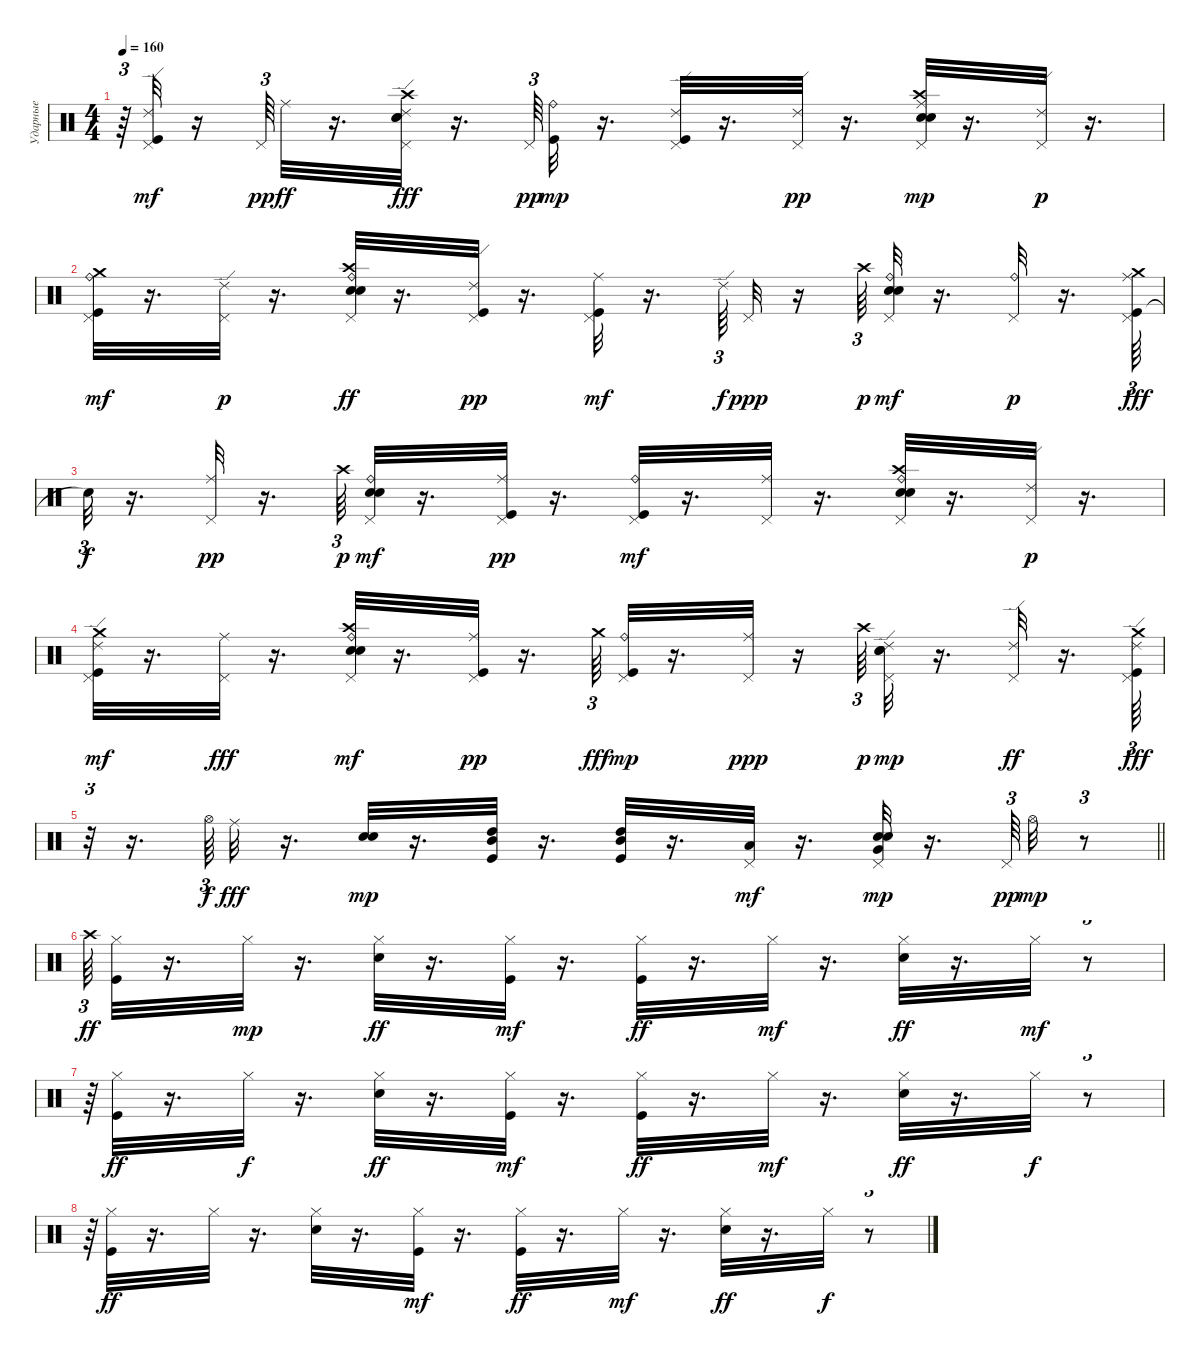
\track ("Ударные" "Ударные") {instrument percussion}
\staff {score}
\articulation defaults
\ts (4 4)
\tempo 160
\clef neutral
\ks c
r.64{tu (3 2) dy ff} ("Kick (hit)" "Ride (edge) 2" "Pedal Hi-Hat (hit)").32{dy mf} r.16 "Pedal Hi-Hat (hit)".64{tu (3 2) dy pp} "Ride (middle)".32{dy ff} r.16{d} ("Pedal Hi-Hat (hit)" "Electric Snare (hit)" "Crash high (hit)" "Snare (hit) 2" "Ride (edge) 2").32{dy fff} r.16{d} "Pedal Hi-Hat (hit)".64{tu (3 2) dy pp} ("Kick (hit)" "Ride (bell)").32{dy mp} r.16{d} ("Kick (hit)" "Ride (edge) 2" "Pedal Hi-Hat (hit)").32 r.16{d} ("Ride (edge) 2" "Pedal Hi-Hat (hit)").32{dy pp} r.16{d} ("Electric Snare (hit)" "Snare (hit) 2" "Ride (middle)" "Pedal Hi-Hat (hit)" "Crash high (hit)").32{dy mp} r.16{d} ("Ride (edge) 2" "Pedal Hi-Hat (hit)").32{dy p} r.16{d} |
("Crash medium (hit)" "Kick (hit)" "Ride (bell)" "Pedal Hi-Hat (hit)").32{dy mf} r.16{d} ("Ride (edge) 2" "Pedal Hi-Hat (hit)").32{dy p} r.16{d} ("Electric Snare (hit)" "Crash high (hit)" "Snare (hit) 2" "Ride (bell)" "Pedal Hi-Hat (hit)").32{dy ff} r.16{d} ("Kick (hit)" "Ride (edge) 2" "Pedal Hi-Hat (hit)").32{dy pp} r.16{d} ("Kick (hit)" "Ride (middle)" "Pedal Hi-Hat (hit)").32{dy mf} r.16{d} "Ride (edge) 2".64{tu (3 2) dy f} "Pedal Hi-Hat (hit)".32{dy ppp} r.16 "Crash high (hit)".64{tu (3 2) dy p} ("Electric Snare (hit)" "Snare (hit) 2" "Ride (bell)" "Pedal Hi-Hat (hit)").32{dy mf} r.16{d} ("Ride (bell)" "Pedal Hi-Hat (hit)").32{dy p} r.16{d} ("Kick (hit)" "Ride (middle)" "Pedal Hi-Hat (hit)" "Crash medium (hit)").64{tu (3 2) dy fff} |
"Snare (hit)"{t}.32{tu (3 2) dy f} r.16{d} ("Ride (middle)" "Pedal Hi-Hat (hit)").32{dy pp} r.16{d} "Crash high (hit)".64{tu (3 2) dy p} ("Electric Snare (hit)" "Snare (hit) 2" "Ride (bell)" "Pedal Hi-Hat (hit)").32{dy mf} r.16{d} ("Kick (hit)" "Ride (middle)" "Pedal Hi-Hat (hit)").32{dy pp} r.16{d} ("Kick (hit)" "Ride (bell)" "Pedal Hi-Hat (hit)").32{dy mf} r.16{d} ("Pedal Hi-Hat (hit)" "Ride (middle)").32 r.16{d} ("Electric Snare (hit)" "Crash high (hit)" "Snare (hit) 2" "Ride (bell)" "Pedal Hi-Hat (hit)").32 r.16{d} ("Ride (edge) 2" "Pedal Hi-Hat (hit)").32{dy p} r.16{d} |
("Crash medium (hit)" "Kick (hit)" "Ride (edge) 2" "Pedal Hi-Hat (hit)").32{dy mf} r.16{d} ("Pedal Hi-Hat (hit)" "Ride (middle)").32{dy fff} r.16{d} ("Electric Snare (hit)" "Crash high (hit)" "Snare (hit) 2" "Ride (bell)" "Pedal Hi-Hat (hit)").32{dy mf} r.16{d} ("Kick (hit)" "Ride (middle)" "Pedal Hi-Hat (hit)").32{dy pp} r.16{d} "Crash medium (hit)".64{tu (3 2) dy fff} ("Kick (hit)" "Ride (bell)" "Pedal Hi-Hat (hit)").32{dy mp} r.16{d} ("Ride (middle)" "Pedal Hi-Hat (hit)").32{dy ppp} r.16 "Crash high (hit)".64{tu (3 2) dy p} ("Electric Snare (hit)" "Snare (hit) 2" "Ride (edge) 2" "Pedal Hi-Hat (hit)").32{dy mp} r.16{d} ("Pedal Hi-Hat (hit)" "Ride (edge) 2").32{dy ff} r.16{d} ("Kick (hit)" "Crash medium (hit)" "Ride (edge) 2" "Pedal Hi-Hat (hit)").64{tu (3 2) dy fff} |
\barLineRight lightlight
r.32{tu (3 2)} r.16{d} "Hi-Hat (open)".64{tu (3 2) dy f} "Ride (middle)".32{dy fff} r.16{d} ("Electric Snare (hit)" "Snare (hit) 2").32{dy mp} r.16{d} ("Kick (hit)" "High Tom (hit)" "Mid Tom (hit)").32 r.16{d} ("Kick (hit)" "High Tom (hit)" "Mid Tom (hit)").32 r.16{d} ("Pedal Hi-Hat (hit)" "Low Tom (hit)").32{dy mf} r.16{d} ("Pedal Hi-Hat (hit)" "Electric Snare (hit)" "Very Low Tom (hit)" "Snare (hit) 2").32{dy mp} r.16{d} "Pedal Hi-Hat (hit)".64{tu (3 2) dy pp} "Hi-Hat (open)".32{dy mp} r.8{tu (3 2)} |
"Crash high (hit)".64{tu (3 2) dy ff} ("Kick (hit)" "Hi-Hat (closed)").32 r.16{d} "Hi-Hat (closed)".32{dy mp} r.16{d} ("Hi-Hat (closed)" "Electric Snare (hit)").32{dy ff} r.16{d} ("Kick (hit)" "Hi-Hat (closed)").32{dy mf} r.16{d} ("Kick (hit)" "Hi-Hat (closed)").32{dy ff} r.16{d} "Hi-Hat (closed)".32{dy mf} r.16{d} ("Hi-Hat (closed)" "Electric Snare (hit)").32{dy ff} r.16{d} "Hi-Hat (closed)".32{dy mf} r.8{tu (3 2)} |
r.64{tu (3 2)} ("Kick (hit)" "Hi-Hat (closed)").32{dy ff} r.16{d} "Hi-Hat (closed)".32{dy f} r.16{d} ("Hi-Hat (closed)" "Electric Snare (hit)").32{dy ff} r.16{d} ("Kick (hit)" "Hi-Hat (closed)").32{dy mf} r.16{d} ("Kick (hit)" "Hi-Hat (closed)").32{dy ff} r.16{d} "Hi-Hat (closed)".32{dy mf} r.16{d} ("Hi-Hat (closed)" "Electric Snare (hit)").32{dy ff} r.16{d} "Hi-Hat (closed)".32{dy f} r.8{tu (3 2)} |
r.64{tu (3 2)} ("Kick (hit)" "Hi-Hat (closed)").32{dy ff} r.16{d} "Hi-Hat (closed)".32 r.16{d} ("Hi-Hat (closed)" "Electric Snare (hit)").32 r.16{d} ("Kick (hit)" "Hi-Hat (closed)").32{dy mf} r.16{d} ("Kick (hit)" "Hi-Hat (closed)").32{dy ff} r.16{d} "Hi-Hat (closed)".32{dy mf} r.16{d} ("Hi-Hat (closed)" "Electric Snare (hit)").32{dy ff} r.16{d} "Hi-Hat (closed)".32{dy f} r.8{tu (3 2)}
